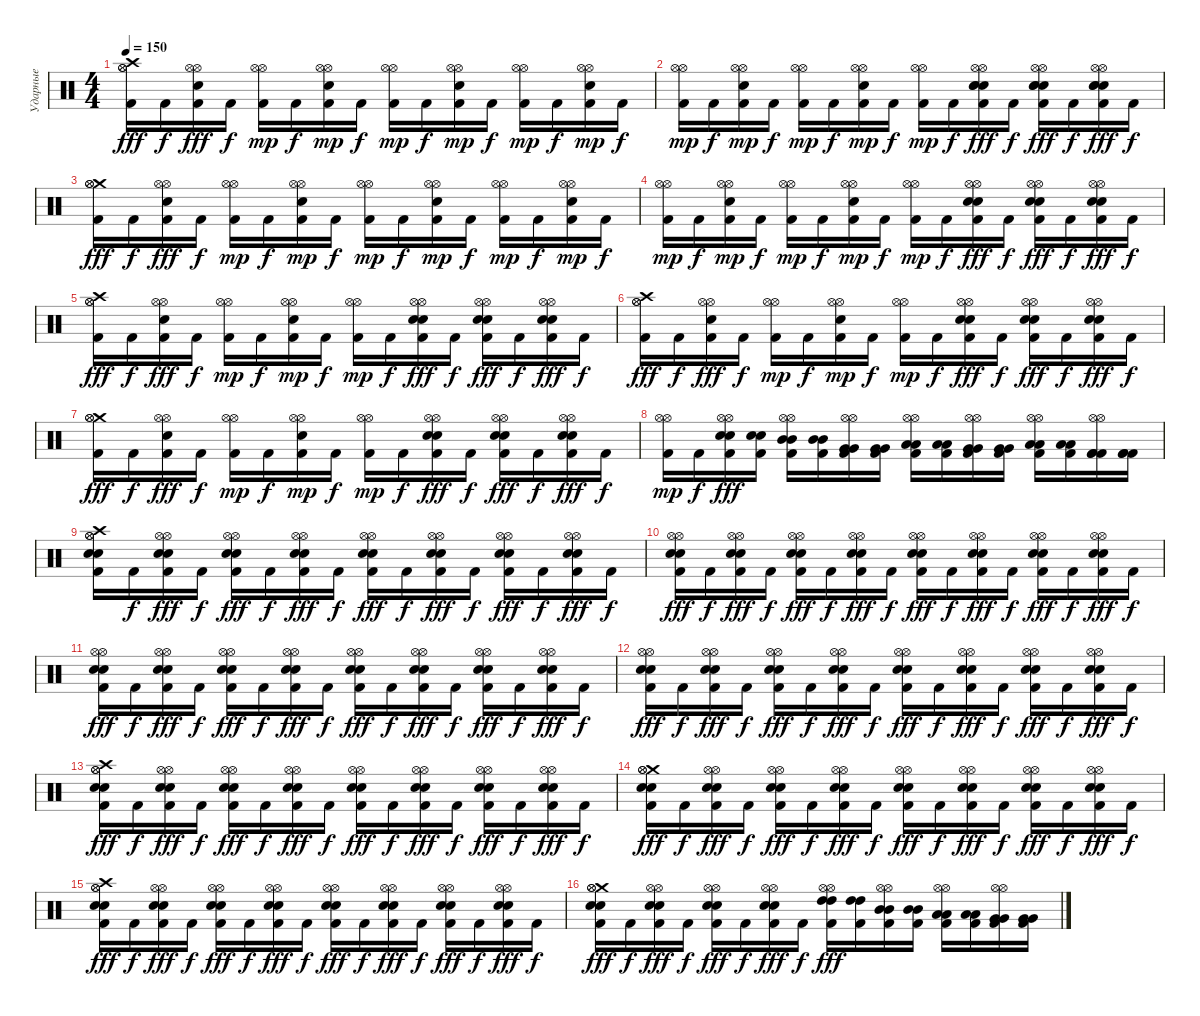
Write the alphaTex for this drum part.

\track ("Ударные" "Ударные") {instrument percussion}
\staff {score}
\articulation defaults
\ts (4 4)
\tempo 150
\clef neutral
\ks c
("Crash high (hit)" "Hi-Hat (open)" "Hi-Hat (open)" "Kick (hit) 2").16{dy fff} "Kick (hit) 2".16{dy f} ("Hi-Hat (open)" "Hi-Hat (open)" "Snare (hit) 2" "Kick (hit) 2").16{dy fff} "Kick (hit) 2".16{dy f} ("Hi-Hat (open)" "Hi-Hat (open)" "Kick (hit) 2").16{dy mp} "Kick (hit) 2".16{dy f} ("Hi-Hat (open)" "Hi-Hat (open)" "Snare (hit) 2" "Kick (hit) 2").16{dy mp} "Kick (hit) 2".16{dy f} ("Hi-Hat (open)" "Hi-Hat (open)" "Kick (hit) 2").16{dy mp} "Kick (hit) 2".16{dy f} ("Hi-Hat (open)" "Hi-Hat (open)" "Snare (hit) 2" "Kick (hit) 2").16{dy mp} "Kick (hit) 2".16{dy f} ("Hi-Hat (open)" "Hi-Hat (open)" "Kick (hit) 2").16{dy mp} "Kick (hit) 2".16{dy f} ("Hi-Hat (open)" "Hi-Hat (open)" "Snare (hit) 2" "Kick (hit) 2").16{dy mp} "Kick (hit) 2".16{dy f} |
("Hi-Hat (open)" "Hi-Hat (open)" "Kick (hit) 2").16{dy mp} "Kick (hit) 2".16{dy f} ("Hi-Hat (open)" "Hi-Hat (open)" "Snare (hit) 2" "Kick (hit) 2").16{dy mp} "Kick (hit) 2".16{dy f} ("Hi-Hat (open)" "Hi-Hat (open)" "Kick (hit) 2").16{dy mp} "Kick (hit) 2".16{dy f} ("Hi-Hat (open)" "Hi-Hat (open)" "Snare (hit) 2" "Kick (hit) 2").16{dy mp} "Kick (hit) 2".16{dy f} ("Hi-Hat (open)" "Hi-Hat (open)" "Kick (hit) 2").16{dy mp} "Kick (hit) 2".16{dy f} ("Snare (hit) 2" "Hi-Hat (open)" "Hi-Hat (open)" "Snare (hit) 2" "Snare (hit) 2" "Kick (hit) 2").16{dy fff} "Kick (hit) 2".16{dy f} ("Snare (hit) 2" "Hi-Hat (open)" "Hi-Hat (open)" "Snare (hit) 2" "Snare (hit) 2" "Kick (hit) 2").16{dy fff} "Kick (hit) 2".16{dy f} ("Snare (hit) 2" "Hi-Hat (open)" "Hi-Hat (open)" "Snare (hit) 2" "Snare (hit) 2" "Kick (hit) 2").16{dy fff} "Kick (hit) 2".16{dy f} |
("Crash medium (hit)" "Hi-Hat (open)" "Hi-Hat (open)" "Kick (hit) 2").16{dy fff} "Kick (hit) 2".16{dy f} ("Hi-Hat (open)" "Hi-Hat (open)" "Snare (hit) 2" "Kick (hit) 2").16{dy fff} "Kick (hit) 2".16{dy f} ("Hi-Hat (open)" "Hi-Hat (open)" "Kick (hit) 2").16{dy mp} "Kick (hit) 2".16{dy f} ("Hi-Hat (open)" "Hi-Hat (open)" "Snare (hit) 2" "Kick (hit) 2").16{dy mp} "Kick (hit) 2".16{dy f} ("Hi-Hat (open)" "Hi-Hat (open)" "Kick (hit) 2").16{dy mp} "Kick (hit) 2".16{dy f} ("Hi-Hat (open)" "Hi-Hat (open)" "Snare (hit) 2" "Kick (hit) 2").16{dy mp} "Kick (hit) 2".16{dy f} ("Hi-Hat (open)" "Hi-Hat (open)" "Kick (hit) 2").16{dy mp} "Kick (hit) 2".16{dy f} ("Hi-Hat (open)" "Hi-Hat (open)" "Snare (hit) 2" "Kick (hit) 2").16{dy mp} "Kick (hit) 2".16{dy f} |
("Hi-Hat (open)" "Hi-Hat (open)" "Kick (hit) 2").16{dy mp} "Kick (hit) 2".16{dy f} ("Hi-Hat (open)" "Hi-Hat (open)" "Snare (hit) 2" "Kick (hit) 2").16{dy mp} "Kick (hit) 2".16{dy f} ("Hi-Hat (open)" "Hi-Hat (open)" "Kick (hit) 2").16{dy mp} "Kick (hit) 2".16{dy f} ("Hi-Hat (open)" "Hi-Hat (open)" "Snare (hit) 2" "Kick (hit) 2").16{dy mp} "Kick (hit) 2".16{dy f} ("Hi-Hat (open)" "Hi-Hat (open)" "Kick (hit) 2").16{dy mp} "Kick (hit) 2".16{dy f} ("Hi-Hat (open)" "Hi-Hat (open)" "Snare (hit) 2" "Snare (hit) 2" "Kick (hit) 2").16{dy fff} "Kick (hit) 2".16{dy f} ("Hi-Hat (open)" "Hi-Hat (open)" "Snare (hit) 2" "Snare (hit) 2" "Kick (hit) 2").16{dy fff} "Kick (hit) 2".16{dy f} ("Hi-Hat (open)" "Hi-Hat (open)" "Snare (hit) 2" "Snare (hit) 2" "Kick (hit) 2").16{dy fff} "Kick (hit) 2".16{dy f} |
("Crash high (hit)" "Hi-Hat (open)" "Hi-Hat (open)" "Kick (hit) 2").16{dy fff} "Kick (hit) 2".16{dy f} ("Hi-Hat (open)" "Hi-Hat (open)" "Snare (hit) 2" "Kick (hit) 2").16{dy fff} "Kick (hit) 2".16{dy f} ("Hi-Hat (open)" "Hi-Hat (open)" "Kick (hit) 2").16{dy mp} "Kick (hit) 2".16{dy f} ("Hi-Hat (open)" "Hi-Hat (open)" "Snare (hit) 2" "Kick (hit) 2").16{dy mp} "Kick (hit) 2".16{dy f} ("Hi-Hat (open)" "Hi-Hat (open)" "Kick (hit) 2").16{dy mp} "Kick (hit) 2".16{dy f} ("Hi-Hat (open)" "Hi-Hat (open)" "Snare (hit) 2" "Snare (hit) 2" "Kick (hit) 2").16{dy fff} "Kick (hit) 2".16{dy f} ("Hi-Hat (open)" "Hi-Hat (open)" "Snare (hit) 2" "Snare (hit) 2" "Kick (hit) 2").16{dy fff} "Kick (hit) 2".16{dy f} ("Hi-Hat (open)" "Hi-Hat (open)" "Snare (hit) 2" "Snare (hit) 2" "Kick (hit) 2").16{dy fff} "Kick (hit) 2".16{dy f} |
("Crash high (hit)" "Hi-Hat (open)" "Hi-Hat (open)" "Kick (hit) 2").16{dy fff} "Kick (hit) 2".16{dy f} ("Hi-Hat (open)" "Hi-Hat (open)" "Snare (hit) 2" "Kick (hit) 2").16{dy fff} "Kick (hit) 2".16{dy f} ("Hi-Hat (open)" "Hi-Hat (open)" "Kick (hit) 2").16{dy mp} "Kick (hit) 2".16{dy f} ("Hi-Hat (open)" "Hi-Hat (open)" "Snare (hit) 2" "Kick (hit) 2").16{dy mp} "Kick (hit) 2".16{dy f} ("Hi-Hat (open)" "Hi-Hat (open)" "Kick (hit) 2").16{dy mp} "Kick (hit) 2".16{dy f} ("Hi-Hat (open)" "Hi-Hat (open)" "Snare (hit) 2" "Snare (hit) 2" "Kick (hit) 2").16{dy fff} "Kick (hit) 2".16{dy f} ("Hi-Hat (open)" "Hi-Hat (open)" "Snare (hit) 2" "Snare (hit) 2" "Kick (hit) 2").16{dy fff} "Kick (hit) 2".16{dy f} ("Hi-Hat (open)" "Hi-Hat (open)" "Snare (hit) 2" "Snare (hit) 2" "Kick (hit) 2").16{dy fff} "Kick (hit) 2".16{dy f} |
("Crash medium (hit)" "Hi-Hat (open)" "Hi-Hat (open)" "Kick (hit) 2").16{dy fff} "Kick (hit) 2".16{dy f} ("Hi-Hat (open)" "Hi-Hat (open)" "Snare (hit) 2" "Kick (hit) 2").16{dy fff} "Kick (hit) 2".16{dy f} ("Hi-Hat (open)" "Hi-Hat (open)" "Kick (hit) 2").16{dy mp} "Kick (hit) 2".16{dy f} ("Hi-Hat (open)" "Hi-Hat (open)" "Snare (hit) 2" "Kick (hit) 2").16{dy mp} "Kick (hit) 2".16{dy f} ("Hi-Hat (open)" "Hi-Hat (open)" "Kick (hit) 2").16{dy mp} "Kick (hit) 2".16{dy f} ("Hi-Hat (open)" "Hi-Hat (open)" "Snare (hit) 2" "Snare (hit) 2" "Kick (hit) 2").16{dy fff} "Kick (hit) 2".16{dy f} ("Hi-Hat (open)" "Hi-Hat (open)" "Snare (hit) 2" "Snare (hit) 2" "Kick (hit) 2").16{dy fff} "Kick (hit) 2".16{dy f} ("Hi-Hat (open)" "Hi-Hat (open)" "Snare (hit) 2" "Snare (hit) 2" "Kick (hit) 2").16{dy fff} "Kick (hit) 2".16{dy f} |
("Hi-Hat (open)" "Hi-Hat (open)" "Kick (hit) 2").16{dy mp} "Kick (hit) 2".16{dy f} ("Hi-Hat (open)" "Hi-Hat (open)" "Snare (hit) 2" "Snare (hit) 2" "Kick (hit) 2").16{dy fff} ("Snare (hit) 2" "Snare (hit) 2" "Kick (hit) 2").16 ("Hi-Hat (open)" "Hi-Hat (open)" "Mid Tom (hit)" "Mid Tom (hit)" "Kick (hit) 2").16 ("Mid Tom (hit)" "Mid Tom (hit)" "Kick (hit) 2").16 ("Hi-Hat (open)" "Hi-Hat (open)" "Very Low Tom (hit)" "Very Low Tom (hit)" "Kick (hit) 2").16 ("Very Low Tom (hit)" "Very Low Tom (hit)" "Kick (hit) 2").16 ("Hi-Hat (open)" "Hi-Hat (open)" "Low Tom (hit)" "Low Tom (hit)" "Kick (hit) 2").16 ("Low Tom (hit)" "Low Tom (hit)" "Kick (hit) 2").16 ("Hi-Hat (open)" "Hi-Hat (open)" "Very Low Tom (hit)" "Very Low Tom (hit)" "Kick (hit) 2").16 ("Very Low Tom (hit)" "Very Low Tom (hit)" "Kick (hit) 2").16 ("Hi-Hat (open)" "Hi-Hat (open)" "Low Floor Tom (hit)" "Low Floor Tom (hit)" "Kick (hit) 2").16 ("Low Floor Tom (hit)" "Low Floor Tom (hit)" "Kick (hit) 2").16 ("Hi-Hat (open)" "Hi-Hat (open)" "Kick (hit) 2" "Kick (hit) 2" "Kick (hit) 2").16 ("Kick (hit) 2" "Kick (hit) 2" "Kick (hit) 2").16 |
("Crash high (hit)" "Hi-Hat (open)" "Hi-Hat (open)" "Snare (hit) 2" "Snare (hit) 2" "Kick (hit) 2").16 "Kick (hit) 2".16{dy f} ("Hi-Hat (open)" "Hi-Hat (open)" "Snare (hit) 2" "Snare (hit) 2" "Kick (hit) 2").16{dy fff} "Kick (hit) 2".16{dy f} ("Hi-Hat (open)" "Hi-Hat (open)" "Snare (hit) 2" "Snare (hit) 2" "Kick (hit) 2").16{dy fff} "Kick (hit) 2".16{dy f} ("Hi-Hat (open)" "Hi-Hat (open)" "Snare (hit) 2" "Snare (hit) 2" "Kick (hit) 2").16{dy fff} "Kick (hit) 2".16{dy f} ("Hi-Hat (open)" "Hi-Hat (open)" "Snare (hit) 2" "Snare (hit) 2" "Kick (hit) 2").16{dy fff} "Kick (hit) 2".16{dy f} ("Hi-Hat (open)" "Hi-Hat (open)" "Snare (hit) 2" "Snare (hit) 2" "Kick (hit) 2").16{dy fff} "Kick (hit) 2".16{dy f} ("Hi-Hat (open)" "Hi-Hat (open)" "Snare (hit) 2" "Snare (hit) 2" "Kick (hit) 2").16{dy fff} "Kick (hit) 2".16{dy f} ("Hi-Hat (open)" "Hi-Hat (open)" "Snare (hit) 2" "Snare (hit) 2" "Kick (hit) 2").16{dy fff} "Kick (hit) 2".16{dy f} |
("Hi-Hat (open)" "Hi-Hat (open)" "Snare (hit) 2" "Snare (hit) 2" "Kick (hit) 2").16{dy fff} "Kick (hit) 2".16{dy f} ("Hi-Hat (open)" "Hi-Hat (open)" "Snare (hit) 2" "Snare (hit) 2" "Kick (hit) 2").16{dy fff} "Kick (hit) 2".16{dy f} ("Hi-Hat (open)" "Hi-Hat (open)" "Snare (hit) 2" "Snare (hit) 2" "Kick (hit) 2").16{dy fff} "Kick (hit) 2".16{dy f} ("Hi-Hat (open)" "Hi-Hat (open)" "Snare (hit) 2" "Snare (hit) 2" "Kick (hit) 2").16{dy fff} "Kick (hit) 2".16{dy f} ("Hi-Hat (open)" "Hi-Hat (open)" "Snare (hit) 2" "Snare (hit) 2" "Kick (hit) 2").16{dy fff} "Kick (hit) 2".16{dy f} ("Hi-Hat (open)" "Hi-Hat (open)" "Snare (hit) 2" "Snare (hit) 2" "Kick (hit) 2").16{dy fff} "Kick (hit) 2".16{dy f} ("Hi-Hat (open)" "Hi-Hat (open)" "Snare (hit) 2" "Snare (hit) 2" "Kick (hit) 2").16{dy fff} "Kick (hit) 2".16{dy f} ("Hi-Hat (open)" "Hi-Hat (open)" "Snare (hit) 2" "Snare (hit) 2" "Kick (hit) 2").16{dy fff} "Kick (hit) 2".16{dy f} |
("Hi-Hat (open)" "Hi-Hat (open)" "Snare (hit) 2" "Snare (hit) 2" "Kick (hit) 2").16{dy fff} "Kick (hit) 2".16{dy f} ("Hi-Hat (open)" "Hi-Hat (open)" "Snare (hit) 2" "Snare (hit) 2" "Kick (hit) 2").16{dy fff} "Kick (hit) 2".16{dy f} ("Hi-Hat (open)" "Hi-Hat (open)" "Snare (hit) 2" "Snare (hit) 2" "Kick (hit) 2").16{dy fff} "Kick (hit) 2".16{dy f} ("Hi-Hat (open)" "Hi-Hat (open)" "Snare (hit) 2" "Snare (hit) 2" "Kick (hit) 2").16{dy fff} "Kick (hit) 2".16{dy f} ("Hi-Hat (open)" "Hi-Hat (open)" "Snare (hit) 2" "Snare (hit) 2" "Kick (hit) 2").16{dy fff} "Kick (hit) 2".16{dy f} ("Hi-Hat (open)" "Hi-Hat (open)" "Snare (hit) 2" "Snare (hit) 2" "Kick (hit) 2").16{dy fff} "Kick (hit) 2".16{dy f} ("Hi-Hat (open)" "Hi-Hat (open)" "Snare (hit) 2" "Snare (hit) 2" "Kick (hit) 2").16{dy fff} "Kick (hit) 2".16{dy f} ("Hi-Hat (open)" "Hi-Hat (open)" "Snare (hit) 2" "Snare (hit) 2" "Kick (hit) 2").16{dy fff} "Kick (hit) 2".16{dy f} |
("Hi-Hat (open)" "Hi-Hat (open)" "Snare (hit) 2" "Snare (hit) 2" "Kick (hit) 2").16{dy fff} "Kick (hit) 2".16{dy f} ("Hi-Hat (open)" "Hi-Hat (open)" "Snare (hit) 2" "Snare (hit) 2" "Kick (hit) 2").16{dy fff} "Kick (hit) 2".16{dy f} ("Hi-Hat (open)" "Hi-Hat (open)" "Snare (hit) 2" "Snare (hit) 2" "Kick (hit) 2").16{dy fff} "Kick (hit) 2".16{dy f} ("Hi-Hat (open)" "Hi-Hat (open)" "Snare (hit) 2" "Snare (hit) 2" "Kick (hit) 2").16{dy fff} "Kick (hit) 2".16{dy f} ("Hi-Hat (open)" "Hi-Hat (open)" "Snare (hit) 2" "Snare (hit) 2" "Kick (hit) 2").16{dy fff} "Kick (hit) 2".16{dy f} ("Hi-Hat (open)" "Hi-Hat (open)" "Snare (hit) 2" "Snare (hit) 2" "Kick (hit) 2").16{dy fff} "Kick (hit) 2".16{dy f} ("Hi-Hat (open)" "Hi-Hat (open)" "Snare (hit) 2" "Snare (hit) 2" "Kick (hit) 2").16{dy fff} "Kick (hit) 2".16{dy f} ("Hi-Hat (open)" "Hi-Hat (open)" "Snare (hit) 2" "Snare (hit) 2" "Kick (hit) 2").16{dy fff} "Kick (hit) 2".16{dy f} |
("Crash high (hit)" "Hi-Hat (open)" "Hi-Hat (open)" "Snare (hit) 2" "Snare (hit) 2" "Kick (hit) 2").16{dy fff} "Kick (hit) 2".16{dy f} ("Hi-Hat (open)" "Hi-Hat (open)" "Snare (hit) 2" "Snare (hit) 2" "Kick (hit) 2").16{dy fff} "Kick (hit) 2".16{dy f} ("Hi-Hat (open)" "Hi-Hat (open)" "Snare (hit) 2" "Snare (hit) 2" "Kick (hit) 2").16{dy fff} "Kick (hit) 2".16{dy f} ("Hi-Hat (open)" "Hi-Hat (open)" "Snare (hit) 2" "Snare (hit) 2" "Kick (hit) 2").16{dy fff} "Kick (hit) 2".16{dy f} ("Hi-Hat (open)" "Hi-Hat (open)" "Snare (hit) 2" "Snare (hit) 2" "Kick (hit) 2").16{dy fff} "Kick (hit) 2".16{dy f} ("Hi-Hat (open)" "Hi-Hat (open)" "Snare (hit) 2" "Snare (hit) 2" "Kick (hit) 2").16{dy fff} "Kick (hit) 2".16{dy f} ("Hi-Hat (open)" "Hi-Hat (open)" "Snare (hit) 2" "Snare (hit) 2" "Kick (hit) 2").16{dy fff} "Kick (hit) 2".16{dy f} ("Hi-Hat (open)" "Hi-Hat (open)" "Snare (hit) 2" "Snare (hit) 2" "Kick (hit) 2").16{dy fff} "Kick (hit) 2".16{dy f} |
("Crash medium (hit)" "Hi-Hat (open)" "Hi-Hat (open)" "Snare (hit) 2" "Snare (hit) 2" "Kick (hit) 2").16{dy fff} "Kick (hit) 2".16{dy f} ("Hi-Hat (open)" "Hi-Hat (open)" "Snare (hit) 2" "Snare (hit) 2" "Kick (hit) 2").16{dy fff} "Kick (hit) 2".16{dy f} ("Hi-Hat (open)" "Hi-Hat (open)" "Snare (hit) 2" "Snare (hit) 2" "Kick (hit) 2").16{dy fff} "Kick (hit) 2".16{dy f} ("Hi-Hat (open)" "Hi-Hat (open)" "Snare (hit) 2" "Snare (hit) 2" "Kick (hit) 2").16{dy fff} "Kick (hit) 2".16{dy f} ("Hi-Hat (open)" "Hi-Hat (open)" "Snare (hit) 2" "Snare (hit) 2" "Kick (hit) 2").16{dy fff} "Kick (hit) 2".16{dy f} ("Hi-Hat (open)" "Hi-Hat (open)" "Snare (hit) 2" "Snare (hit) 2" "Kick (hit) 2").16{dy fff} "Kick (hit) 2".16{dy f} ("Hi-Hat (open)" "Hi-Hat (open)" "Snare (hit) 2" "Snare (hit) 2" "Kick (hit) 2").16{dy fff} "Kick (hit) 2".16{dy f} ("Hi-Hat (open)" "Hi-Hat (open)" "Snare (hit) 2" "Snare (hit) 2" "Kick (hit) 2").16{dy fff} "Kick (hit) 2".16{dy f} |
("Crash high (hit)" "Hi-Hat (open)" "Hi-Hat (open)" "Snare (hit) 2" "Snare (hit) 2" "Kick (hit) 2").16{dy fff} "Kick (hit) 2".16{dy f} ("Hi-Hat (open)" "Hi-Hat (open)" "Snare (hit) 2" "Snare (hit) 2" "Kick (hit) 2").16{dy fff} "Kick (hit) 2".16{dy f} ("Hi-Hat (open)" "Hi-Hat (open)" "Snare (hit) 2" "Snare (hit) 2" "Kick (hit) 2").16{dy fff} "Kick (hit) 2".16{dy f} ("Hi-Hat (open)" "Hi-Hat (open)" "Snare (hit) 2" "Snare (hit) 2" "Kick (hit) 2").16{dy fff} "Kick (hit) 2".16{dy f} ("Hi-Hat (open)" "Hi-Hat (open)" "Snare (hit) 2" "Snare (hit) 2" "Kick (hit) 2").16{dy fff} "Kick (hit) 2".16{dy f} ("Hi-Hat (open)" "Hi-Hat (open)" "Snare (hit) 2" "Snare (hit) 2" "Kick (hit) 2").16{dy fff} "Kick (hit) 2".16{dy f} ("Hi-Hat (open)" "Hi-Hat (open)" "Snare (hit) 2" "Snare (hit) 2" "Kick (hit) 2").16{dy fff} "Kick (hit) 2".16{dy f} ("Hi-Hat (open)" "Hi-Hat (open)" "Snare (hit) 2" "Snare (hit) 2" "Kick (hit) 2").16{dy fff} "Kick (hit) 2".16{dy f} |
("Crash medium (hit)" "Hi-Hat (open)" "Hi-Hat (open)" "Snare (hit) 2" "Snare (hit) 2" "Kick (hit) 2").16{dy fff} "Kick (hit) 2".16{dy f} ("Hi-Hat (open)" "Hi-Hat (open)" "Snare (hit) 2" "Snare (hit) 2" "Kick (hit) 2").16{dy fff} "Kick (hit) 2".16{dy f} ("Hi-Hat (open)" "Hi-Hat (open)" "Snare (hit) 2" "Snare (hit) 2" "Kick (hit) 2").16{dy fff} "Kick (hit) 2".16{dy f} ("Hi-Hat (open)" "Hi-Hat (open)" "Snare (hit) 2" "Snare (hit) 2" "Kick (hit) 2").16{dy fff} "Kick (hit) 2".16{dy f} ("Hi-Hat (open)" "Hi-Hat (open)" "High Tom (hit)" "High Tom (hit)" "Kick (hit) 2").16{dy fff} ("High Tom (hit)" "High Tom (hit)" "Kick (hit) 2").16 ("Hi-Hat (open)" "Hi-Hat (open)" "Mid Tom (hit)" "Mid Tom (hit)" "Kick (hit) 2").16 ("Mid Tom (hit)" "Mid Tom (hit)" "Kick (hit) 2").16 ("Hi-Hat (open)" "Hi-Hat (open)" "Low Tom (hit)" "Low Tom (hit)" "Kick (hit) 2").16 ("Low Tom (hit)" "Low Tom (hit)" "Kick (hit) 2").16 ("Hi-Hat (open)" "Hi-Hat (open)" "Very Low Tom (hit)" "Very Low Tom (hit)" "Kick (hit) 2").16 ("Very Low Tom (hit)" "Very Low Tom (hit)" "Kick (hit) 2").16
